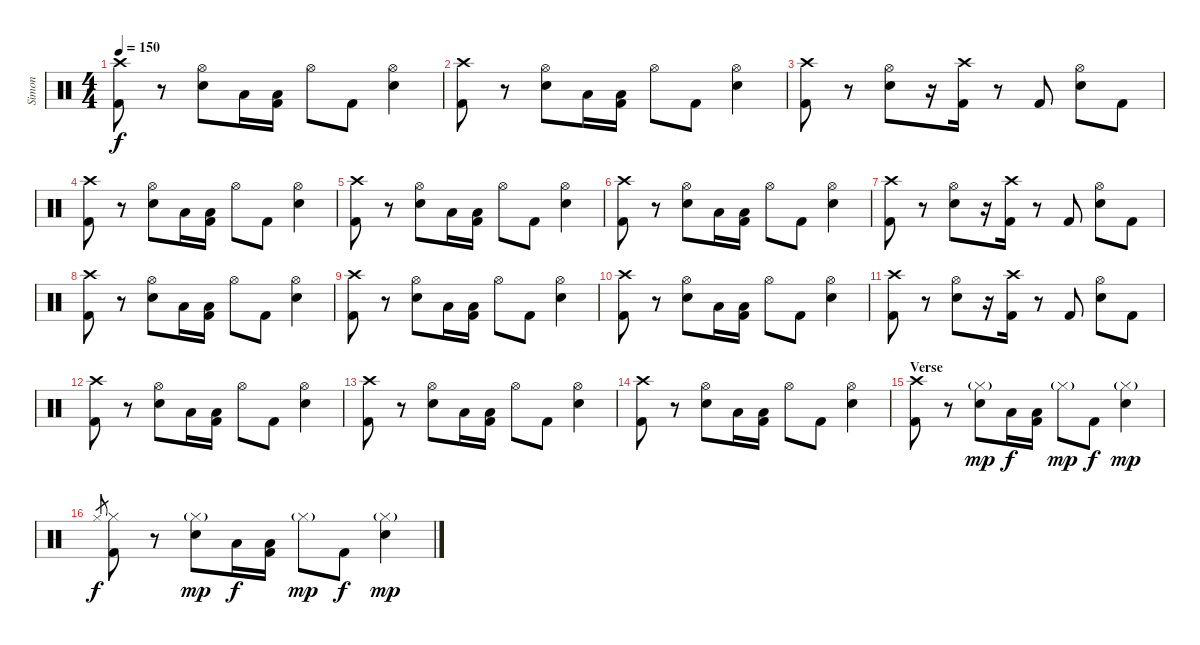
\track ("Simon" "Simon") {instrument percussion}
\staff {score}
\articulation defaults
\ts (4 4)
\tempo 150
\clef neutral
\ks c
("Crash high (hit)" "Kick (hit) 2").8{dy f} r.8 ("Hi-Hat (open)" "Electric Snare (hit)").8 "Low Tom (hit)".16 ("Kick (hit) 2" "Low Tom (hit)").16 "Hi-Hat (open)".8 "Kick (hit) 2".8 ("Hi-Hat (open)" "Electric Snare (hit)").4 |
("Crash high (hit)" "Kick (hit) 2").8 r.8 ("Hi-Hat (open)" "Electric Snare (hit)").8 "Low Tom (hit)".16 ("Kick (hit) 2" "Low Tom (hit)").16 "Hi-Hat (open)".8 "Kick (hit) 2".8 ("Hi-Hat (open)" "Electric Snare (hit)").4 |
("Crash high (hit)" "Kick (hit) 2").8 r.8 ("Hi-Hat (open)" "Electric Snare (hit)").8 r.16 ("Crash high (hit)" "Kick (hit) 2").16 r.8 "Kick (hit) 2".8 ("Hi-Hat (open)" "Electric Snare (hit)").8 "Kick (hit) 2".8 |
("Crash high (hit)" "Kick (hit) 2").8 r.8 ("Hi-Hat (open)" "Electric Snare (hit)").8 "Low Tom (hit)".16 ("Kick (hit) 2" "Low Tom (hit)").16 "Hi-Hat (open)".8 "Kick (hit) 2".8 ("Hi-Hat (open)" "Electric Snare (hit)").4 |
("Crash high (hit)" "Kick (hit) 2").8 r.8 ("Hi-Hat (open)" "Electric Snare (hit)").8 "Low Tom (hit)".16 ("Kick (hit) 2" "Low Tom (hit)").16 "Hi-Hat (open)".8 "Kick (hit) 2".8 ("Hi-Hat (open)" "Electric Snare (hit)").4 |
("Crash high (hit)" "Kick (hit) 2").8 r.8 ("Hi-Hat (open)" "Electric Snare (hit)").8 "Low Tom (hit)".16 ("Kick (hit) 2" "Low Tom (hit)").16 "Hi-Hat (open)".8 "Kick (hit) 2".8 ("Hi-Hat (open)" "Electric Snare (hit)").4 |
("Crash high (hit)" "Kick (hit) 2").8 r.8 ("Hi-Hat (open)" "Electric Snare (hit)").8 r.16 ("Crash high (hit)" "Kick (hit) 2").16 r.8 "Kick (hit) 2".8 ("Hi-Hat (open)" "Electric Snare (hit)").8 "Kick (hit) 2".8 |
("Crash high (hit)" "Kick (hit) 2").8 r.8 ("Hi-Hat (open)" "Electric Snare (hit)").8 "Low Tom (hit)".16 ("Kick (hit) 2" "Low Tom (hit)").16 "Hi-Hat (open)".8 "Kick (hit) 2".8 ("Hi-Hat (open)" "Electric Snare (hit)").4 |
("Crash high (hit)" "Kick (hit) 2").8 r.8 ("Hi-Hat (open)" "Electric Snare (hit)").8 "Low Tom (hit)".16 ("Kick (hit) 2" "Low Tom (hit)").16 "Hi-Hat (open)".8 "Kick (hit) 2".8 ("Hi-Hat (open)" "Electric Snare (hit)").4 |
("Crash high (hit)" "Kick (hit) 2").8 r.8 ("Hi-Hat (open)" "Electric Snare (hit)").8 "Low Tom (hit)".16 ("Kick (hit) 2" "Low Tom (hit)").16 "Hi-Hat (open)".8 "Kick (hit) 2".8 ("Hi-Hat (open)" "Electric Snare (hit)").4 |
("Crash high (hit)" "Kick (hit) 2").8 r.8 ("Hi-Hat (open)" "Electric Snare (hit)").8 r.16 ("Crash high (hit)" "Kick (hit) 2").16 r.8 "Kick (hit) 2".8 ("Hi-Hat (open)" "Electric Snare (hit)").8 "Kick (hit) 2".8 |
("Crash high (hit)" "Kick (hit) 2").8 r.8 ("Hi-Hat (open)" "Electric Snare (hit)").8 "Low Tom (hit)".16 ("Kick (hit) 2" "Low Tom (hit)").16 "Hi-Hat (open)".8 "Kick (hit) 2".8 ("Hi-Hat (open)" "Electric Snare (hit)").4 |
("Crash high (hit)" "Kick (hit) 2").8 r.8 ("Hi-Hat (open)" "Electric Snare (hit)").8 "Low Tom (hit)".16 ("Kick (hit) 2" "Low Tom (hit)").16 "Hi-Hat (open)".8 "Kick (hit) 2".8 ("Hi-Hat (open)" "Electric Snare (hit)").4 |
("Crash high (hit)" "Kick (hit) 2").8 r.8 ("Hi-Hat (open)" "Electric Snare (hit)").8 "Low Tom (hit)".16 ("Kick (hit) 2" "Low Tom (hit)").16 "Hi-Hat (open)".8 "Kick (hit) 2".8 ("Hi-Hat (open)" "Electric Snare (hit)").4 |
\section ("" "Verse")
("Crash high (hit)" "Kick (hit) 2").8 r.8 ("Hi-Hat (closed)"{g} "Electric Snare (hit)").8{dy mp} "Low Tom (hit)".16{dy f} ("Kick (hit) 2" "Low Tom (hit)").16 "Hi-Hat (closed)"{g}.8{dy mp} "Kick (hit) 2".8{dy f} ("Hi-Hat (closed)"{g} "Electric Snare (hit)").4{dy mp} |
"Hi-Hat (closed)".8{gr dy f} ("Hi-Hat (closed)" "Kick (hit) 2").8 r.8 ("Hi-Hat (closed)"{g} "Electric Snare (hit)").8{dy mp} "Low Tom (hit)".16{dy f} ("Kick (hit) 2" "Low Tom (hit)").16 "Hi-Hat (closed)"{g}.8{dy mp} "Kick (hit) 2".8{dy f} ("Hi-Hat (closed)"{g} "Electric Snare (hit)").4{dy mp}
